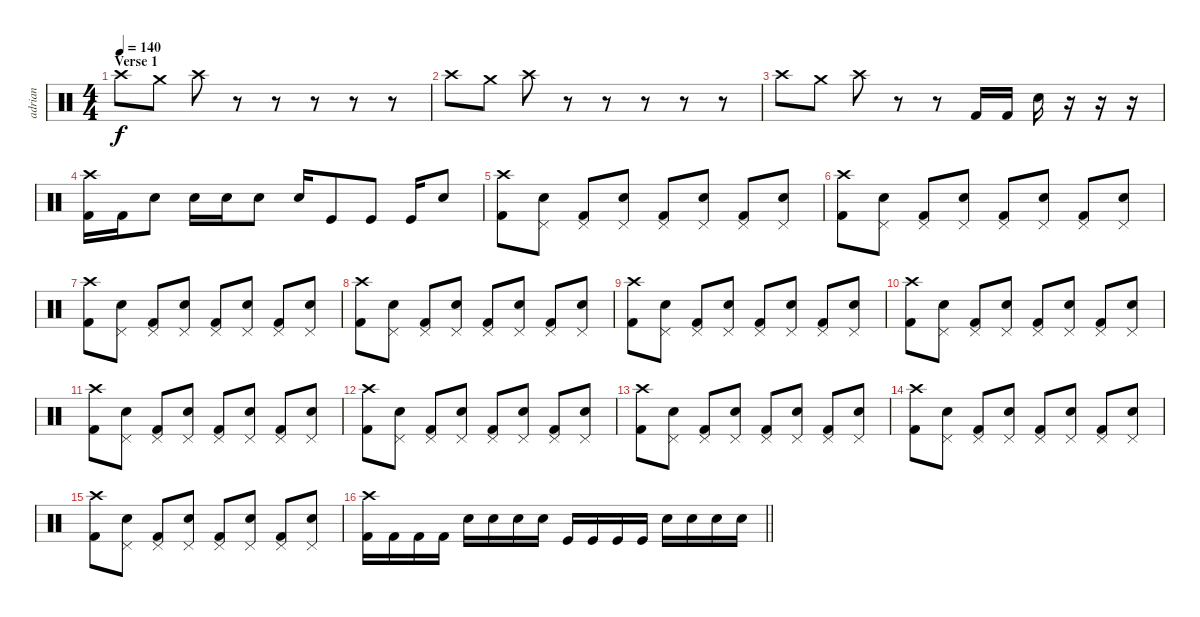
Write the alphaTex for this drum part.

\track ("adrian" "adrian") {instrument percussion}
\staff {score}
\articulation defaults
\ts (4 4)
\section ("" "Verse 1")
\tempo 140
\clef neutral
\ks c "Crash high (hit)".8{dy f} "Crash medium (hit)".8 "Crash high (hit)".8
r.8 r.8 r.8 r.8 r.8 |
"Crash high (hit)".8 "Crash medium (hit)".8 "Crash high (hit)".8 r.8 r.8 r.8 r.8 r.8 |
"Crash high (hit)".8 "Crash medium (hit)".8 "Crash high (hit)".8 r.8 r.8 "Kick (hit) 2".16 "Kick (hit) 2".16 "Electric Snare (hit)".16 r.16 r.16 r.16 |
("Kick (hit) 2" "Crash high (hit)").16 "Kick (hit) 2".16 "Electric Snare (hit)".8 "Snare (hit) 2".16 "Snare (hit) 2".16 "Snare (hit) 2".8 "Snare (hit) 2".16 "Kick (hit)".8 "Kick (hit)".8 "Kick (hit)".16 "Snare (hit) 2".8 |
("Kick (hit) 2" "Crash high (hit)").8 ("Electric Snare (hit)" "Pedal Hi-Hat (hit)").8 ("Kick (hit) 2" "Pedal Hi-Hat (hit)").8 ("Electric Snare (hit)" "Pedal Hi-Hat (hit)").8 ("Kick (hit) 2" "Pedal Hi-Hat (hit)").8 ("Electric Snare (hit)" "Pedal Hi-Hat (hit)").8 ("Kick (hit) 2" "Pedal Hi-Hat (hit)").8 ("Electric Snare (hit)" "Pedal Hi-Hat (hit)").8 |
("Kick (hit) 2" "Crash high (hit)").8 ("Electric Snare (hit)" "Pedal Hi-Hat (hit)").8 ("Kick (hit) 2" "Pedal Hi-Hat (hit)").8 ("Electric Snare (hit)" "Pedal Hi-Hat (hit)").8 ("Kick (hit) 2" "Pedal Hi-Hat (hit)").8 ("Electric Snare (hit)" "Pedal Hi-Hat (hit)").8 ("Kick (hit) 2" "Pedal Hi-Hat (hit)").8 ("Electric Snare (hit)" "Pedal Hi-Hat (hit)").8 |
("Kick (hit) 2" "Crash high (hit)").8 ("Electric Snare (hit)" "Pedal Hi-Hat (hit)").8 ("Kick (hit) 2" "Pedal Hi-Hat (hit)").8 ("Electric Snare (hit)" "Pedal Hi-Hat (hit)").8 ("Kick (hit) 2" "Pedal Hi-Hat (hit)").8 ("Electric Snare (hit)" "Pedal Hi-Hat (hit)").8 ("Kick (hit) 2" "Pedal Hi-Hat (hit)").8 ("Electric Snare (hit)" "Pedal Hi-Hat (hit)").8 |
("Kick (hit) 2" "Crash high (hit)").8 ("Electric Snare (hit)" "Pedal Hi-Hat (hit)").8 ("Kick (hit) 2" "Pedal Hi-Hat (hit)").8 ("Electric Snare (hit)" "Pedal Hi-Hat (hit)").8 ("Kick (hit) 2" "Pedal Hi-Hat (hit)").8 ("Electric Snare (hit)" "Pedal Hi-Hat (hit)").8 ("Kick (hit) 2" "Pedal Hi-Hat (hit)").8 ("Electric Snare (hit)" "Pedal Hi-Hat (hit)").8 |
("Kick (hit) 2" "Crash high (hit)").8 ("Electric Snare (hit)" "Pedal Hi-Hat (hit)").8 ("Kick (hit) 2" "Pedal Hi-Hat (hit)").8 ("Electric Snare (hit)" "Pedal Hi-Hat (hit)").8 ("Kick (hit) 2" "Pedal Hi-Hat (hit)").8 ("Electric Snare (hit)" "Pedal Hi-Hat (hit)").8 ("Kick (hit) 2" "Pedal Hi-Hat (hit)").8 ("Electric Snare (hit)" "Pedal Hi-Hat (hit)").8 |
("Kick (hit) 2" "Crash high (hit)").8 ("Electric Snare (hit)" "Pedal Hi-Hat (hit)").8 ("Kick (hit) 2" "Pedal Hi-Hat (hit)").8 ("Electric Snare (hit)" "Pedal Hi-Hat (hit)").8 ("Kick (hit) 2" "Pedal Hi-Hat (hit)").8 ("Electric Snare (hit)" "Pedal Hi-Hat (hit)").8 ("Kick (hit) 2" "Pedal Hi-Hat (hit)").8 ("Electric Snare (hit)" "Pedal Hi-Hat (hit)").8 |
("Kick (hit) 2" "Crash high (hit)").8 ("Electric Snare (hit)" "Pedal Hi-Hat (hit)").8 ("Kick (hit) 2" "Pedal Hi-Hat (hit)").8 ("Electric Snare (hit)" "Pedal Hi-Hat (hit)").8 ("Kick (hit) 2" "Pedal Hi-Hat (hit)").8 ("Electric Snare (hit)" "Pedal Hi-Hat (hit)").8 ("Kick (hit) 2" "Pedal Hi-Hat (hit)").8 ("Electric Snare (hit)" "Pedal Hi-Hat (hit)").8 |
("Kick (hit) 2" "Crash high (hit)").8 ("Electric Snare (hit)" "Pedal Hi-Hat (hit)").8 ("Kick (hit) 2" "Pedal Hi-Hat (hit)").8 ("Electric Snare (hit)" "Pedal Hi-Hat (hit)").8 ("Kick (hit) 2" "Pedal Hi-Hat (hit)").8 ("Electric Snare (hit)" "Pedal Hi-Hat (hit)").8 ("Kick (hit) 2" "Pedal Hi-Hat (hit)").8 ("Electric Snare (hit)" "Pedal Hi-Hat (hit)").8 |
("Kick (hit) 2" "Crash high (hit)").8 ("Electric Snare (hit)" "Pedal Hi-Hat (hit)").8 ("Kick (hit) 2" "Pedal Hi-Hat (hit)").8 ("Electric Snare (hit)" "Pedal Hi-Hat (hit)").8 ("Kick (hit) 2" "Pedal Hi-Hat (hit)").8 ("Electric Snare (hit)" "Pedal Hi-Hat (hit)").8 ("Kick (hit) 2" "Pedal Hi-Hat (hit)").8 ("Electric Snare (hit)" "Pedal Hi-Hat (hit)").8 |
("Kick (hit) 2" "Crash high (hit)").8 ("Electric Snare (hit)" "Pedal Hi-Hat (hit)").8 ("Kick (hit) 2" "Pedal Hi-Hat (hit)").8 ("Electric Snare (hit)" "Pedal Hi-Hat (hit)").8 ("Kick (hit) 2" "Pedal Hi-Hat (hit)").8 ("Electric Snare (hit)" "Pedal Hi-Hat (hit)").8 ("Kick (hit) 2" "Pedal Hi-Hat (hit)").8 ("Electric Snare (hit)" "Pedal Hi-Hat (hit)").8 |
("Kick (hit) 2" "Crash high (hit)").8 ("Electric Snare (hit)" "Pedal Hi-Hat (hit)").8 ("Kick (hit) 2" "Pedal Hi-Hat (hit)").8 ("Electric Snare (hit)" "Pedal Hi-Hat (hit)").8 ("Kick (hit) 2" "Pedal Hi-Hat (hit)").8 ("Electric Snare (hit)" "Pedal Hi-Hat (hit)").8 ("Kick (hit) 2" "Pedal Hi-Hat (hit)").8 ("Electric Snare (hit)" "Pedal Hi-Hat (hit)").8 |
\barLineRight lightlight
("Kick (hit) 2" "Crash high (hit)").16 "Kick (hit) 2".16 "Kick (hit) 2".16 "Kick (hit) 2".16 "Snare (hit) 2".16 "Snare (hit) 2".16 "Snare (hit) 2".16 "Snare (hit) 2".16 "Kick (hit)".16 "Kick (hit)".16 "Kick (hit)".16 "Kick (hit)".16 "Electric Snare (hit)".16 "Electric Snare (hit)".16 "Electric Snare (hit)".16 "Electric Snare (hit)".16
